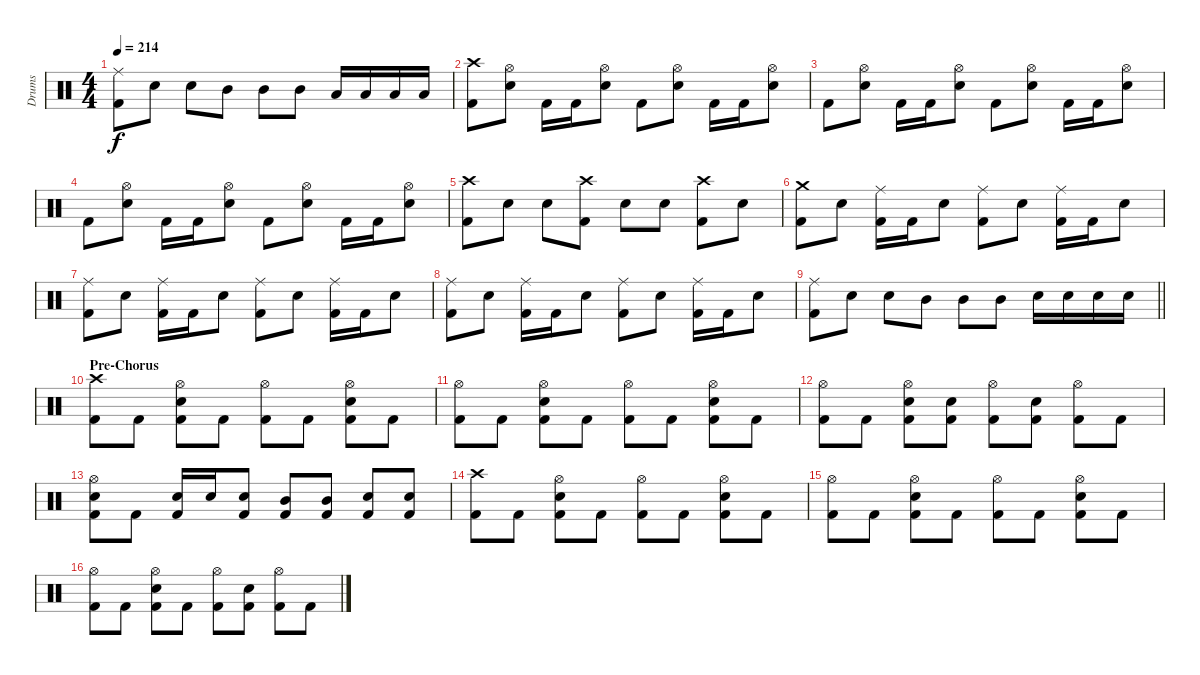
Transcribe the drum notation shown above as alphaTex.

\track ("Drums" "Drums") {instrument percussion}
\staff {score}
\articulation defaults
\ts (4 4)
\tempo 214
\clef neutral
\ks c
("Ride (middle)" "Kick (hit) 2").8{dy f} "Snare (hit) 2".8 "Snare (hit) 2".8 "Mid Tom (hit)".8 "Mid Tom (hit)".8 "Mid Tom (hit)".8 "Low Tom (hit)".16 "Low Tom (hit)".16 "Low Tom (hit)".16 "Low Tom (hit)".16 |
("Crash high (hit)" "Kick (hit) 2").8 ("Hi-Hat (open)" "Snare (hit) 2").8 "Kick (hit) 2".16 "Kick (hit) 2".16 ("Hi-Hat (open)" "Snare (hit) 2").8 "Kick (hit) 2".8 ("Hi-Hat (open)" "Snare (hit) 2").8 "Kick (hit) 2".16 "Kick (hit) 2".16 ("Hi-Hat (open)" "Snare (hit) 2").8 |
"Kick (hit) 2".8 ("Hi-Hat (open)" "Snare (hit) 2").8 "Kick (hit) 2".16 "Kick (hit) 2".16 ("Hi-Hat (open)" "Snare (hit) 2").8 "Kick (hit) 2".8 ("Hi-Hat (open)" "Snare (hit) 2").8 "Kick (hit) 2".16 "Kick (hit) 2".16 ("Hi-Hat (open)" "Snare (hit) 2").8 |
"Kick (hit) 2".8 ("Hi-Hat (open)" "Snare (hit) 2").8 "Kick (hit) 2".16 "Kick (hit) 2".16 ("Hi-Hat (open)" "Snare (hit) 2").8 "Kick (hit) 2".8 ("Hi-Hat (open)" "Snare (hit) 2").8 "Kick (hit) 2".16 "Kick (hit) 2".16 ("Hi-Hat (open)" "Snare (hit) 2").8 |
("Crash high (hit)" "Kick (hit) 2").8 "Snare (hit) 2".8 "Snare (hit) 2".8 ("Crash high (hit)" "Kick (hit) 2").8 "Snare (hit) 2".8 "Snare (hit) 2".8 ("Crash high (hit)" "Kick (hit) 2").8 "Snare (hit) 2".8 |
("Crash medium (hit)" "Kick (hit) 2").8 "Snare (hit) 2".8 ("Ride (middle)" "Kick (hit) 2").16 "Kick (hit) 2".16 "Snare (hit) 2".8 ("Ride (middle)" "Kick (hit) 2").8 "Snare (hit) 2".8 ("Ride (middle)" "Kick (hit) 2").16 "Kick (hit) 2".16 "Snare (hit) 2".8 |
("Ride (middle)" "Kick (hit) 2").8 "Snare (hit) 2".8 ("Ride (middle)" "Kick (hit) 2").16 "Kick (hit) 2".16 "Snare (hit) 2".8 ("Ride (middle)" "Kick (hit) 2").8 "Snare (hit) 2".8 ("Ride (middle)" "Kick (hit) 2").16 "Kick (hit) 2".16 "Snare (hit) 2".8 |
("Ride (middle)" "Kick (hit) 2").8 "Snare (hit) 2".8 ("Ride (middle)" "Kick (hit) 2").16 "Kick (hit) 2".16 "Snare (hit) 2".8 ("Ride (middle)" "Kick (hit) 2").8 "Snare (hit) 2".8 ("Ride (middle)" "Kick (hit) 2").16 "Kick (hit) 2".16 "Snare (hit) 2".8 |
\barLineRight lightlight
("Ride (middle)" "Kick (hit) 2").8 "Snare (hit) 2".8 "Snare (hit) 2".8 "Mid Tom (hit)".8 "Mid Tom (hit)".8 "Mid Tom (hit)".8 "Snare (hit) 2".16 "Snare (hit) 2".16 "Snare (hit) 2".16 "Snare (hit) 2".16 |
\section ("" "Pre-Chorus")
("Crash high (hit)" "Kick (hit) 2").8 "Kick (hit) 2".8 ("Hi-Hat (open)" "Snare (hit) 2" "Kick (hit) 2").8 "Kick (hit) 2".8 ("Hi-Hat (open)" "Kick (hit) 2").8 "Kick (hit) 2".8 ("Hi-Hat (open)" "Snare (hit) 2" "Kick (hit) 2").8 "Kick (hit) 2".8 |
("Hi-Hat (open)" "Kick (hit) 2").8 "Kick (hit) 2".8 ("Hi-Hat (open)" "Snare (hit) 2" "Kick (hit) 2").8 "Kick (hit) 2".8 ("Hi-Hat (open)" "Kick (hit) 2").8 "Kick (hit) 2".8 ("Hi-Hat (open)" "Snare (hit) 2" "Kick (hit) 2").8 "Kick (hit) 2".8 |
("Hi-Hat (open)" "Kick (hit) 2").8 "Kick (hit) 2".8 ("Hi-Hat (open)" "Snare (hit) 2" "Kick (hit) 2").8 ("Snare (hit) 2" "Kick (hit) 2").8 ("Hi-Hat (open)" "Kick (hit) 2").8 ("Snare (hit) 2" "Kick (hit) 2").8 ("Hi-Hat (open)" "Kick (hit) 2").8 "Kick (hit) 2".8 |
("Hi-Hat (open)" "Snare (hit) 2" "Kick (hit) 2").8 "Kick (hit) 2".8 ("Snare (hit) 2" "Kick (hit) 2").16 "Snare (hit) 2".16 ("Snare (hit) 2" "Kick (hit) 2").8 ("Mid Tom (hit)" "Kick (hit) 2").8 ("Mid Tom (hit)" "Kick (hit) 2").8 ("Snare (hit) 2" "Kick (hit) 2").8 ("Snare (hit) 2" "Kick (hit) 2").8 |
("Crash high (hit)" "Kick (hit) 2").8 "Kick (hit) 2".8 ("Hi-Hat (open)" "Snare (hit) 2" "Kick (hit) 2").8 "Kick (hit) 2".8 ("Hi-Hat (open)" "Kick (hit) 2").8 "Kick (hit) 2".8 ("Hi-Hat (open)" "Snare (hit) 2" "Kick (hit) 2").8 "Kick (hit) 2".8 |
("Hi-Hat (open)" "Kick (hit) 2").8 "Kick (hit) 2".8 ("Hi-Hat (open)" "Snare (hit) 2" "Kick (hit) 2").8 "Kick (hit) 2".8 ("Hi-Hat (open)" "Kick (hit) 2").8 "Kick (hit) 2".8 ("Hi-Hat (open)" "Snare (hit) 2" "Kick (hit) 2").8 "Kick (hit) 2".8 |
("Hi-Hat (open)" "Kick (hit) 2").8 "Kick (hit) 2".8 ("Hi-Hat (open)" "Snare (hit) 2" "Kick (hit) 2").8 "Kick (hit) 2".8 ("Hi-Hat (open)" "Kick (hit) 2").8 ("Snare (hit) 2" "Kick (hit) 2").8 ("Hi-Hat (open)" "Kick (hit) 2").8 "Kick (hit) 2".8
